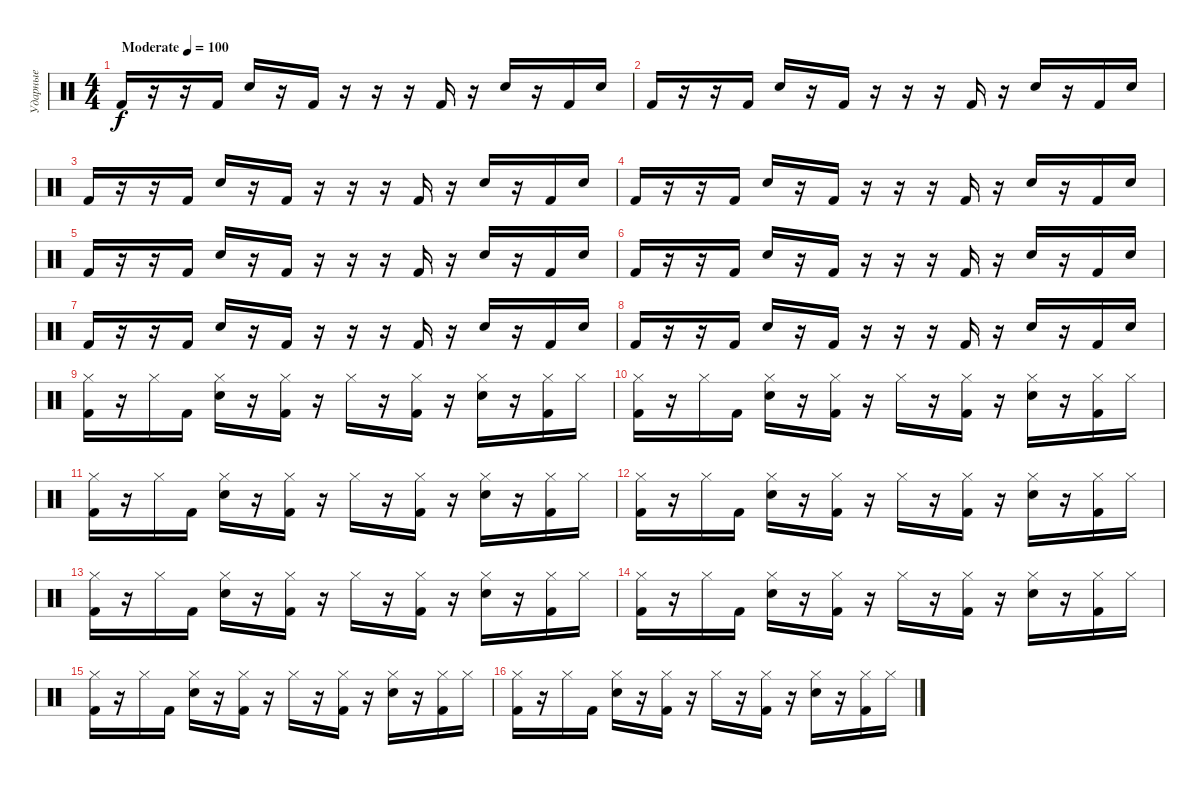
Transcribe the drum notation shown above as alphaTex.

\track ("Ударные" "Ударные") {instrument percussion}
\staff {score}
\articulation defaults
\ts (4 4)
\tempo (100 "Moderate")
\clef neutral
\ks c "Kick (hit) 2".16{dy f}
r.16 r.16 "Kick (hit) 2".16 "Electric Snare (hit)".16 r.16 "Kick (hit) 2".16 r.16 r.16 r.16 "Kick (hit) 2".16 r.16 "Electric Snare (hit)".16 r.16 "Kick (hit) 2".16 "Snare (hit)".16 |
"Kick (hit) 2".16 r.16 r.16 "Kick (hit) 2".16 "Electric Snare (hit)".16 r.16 "Kick (hit) 2".16 r.16 r.16 r.16 "Kick (hit) 2".16 r.16 "Electric Snare (hit)".16 r.16 "Kick (hit) 2".16 "Snare (hit)".16 |
"Kick (hit) 2".16 r.16 r.16 "Kick (hit) 2".16 "Electric Snare (hit)".16 r.16 "Kick (hit) 2".16 r.16 r.16 r.16 "Kick (hit) 2".16 r.16 "Electric Snare (hit)".16 r.16 "Kick (hit) 2".16 "Snare (hit)".16 |
"Kick (hit) 2".16 r.16 r.16 "Kick (hit) 2".16 "Electric Snare (hit)".16 r.16 "Kick (hit) 2".16 r.16 r.16 r.16 "Kick (hit) 2".16 r.16 "Electric Snare (hit)".16 r.16 "Kick (hit) 2".16 "Snare (hit)".16 |
"Kick (hit) 2".16 r.16 r.16 "Kick (hit) 2".16 "Electric Snare (hit)".16 r.16 "Kick (hit) 2".16 r.16 r.16 r.16 "Kick (hit) 2".16 r.16 "Electric Snare (hit)".16 r.16 "Kick (hit) 2".16 "Snare (hit)".16 |
"Kick (hit) 2".16 r.16 r.16 "Kick (hit) 2".16 "Electric Snare (hit)".16 r.16 "Kick (hit) 2".16 r.16 r.16 r.16 "Kick (hit) 2".16 r.16 "Electric Snare (hit)".16 r.16 "Kick (hit) 2".16 "Snare (hit)".16 |
"Kick (hit) 2".16 r.16 r.16 "Kick (hit) 2".16 "Electric Snare (hit)".16 r.16 "Kick (hit) 2".16 r.16 r.16 r.16 "Kick (hit) 2".16 r.16 "Electric Snare (hit)".16 r.16 "Kick (hit) 2".16 "Snare (hit)".16 |
"Kick (hit) 2".16 r.16 r.16 "Kick (hit) 2".16 "Electric Snare (hit)".16 r.16 "Kick (hit) 2".16 r.16 r.16 r.16 "Kick (hit) 2".16 r.16 "Electric Snare (hit)".16 r.16 "Kick (hit) 2".16 "Snare (hit)".16 |
("Kick (hit) 2" "Hi-Hat (closed)").16 r.16 "Hi-Hat (closed)".16 "Kick (hit) 2".16 ("Electric Snare (hit)" "Hi-Hat (closed)").16 r.16 ("Kick (hit) 2" "Hi-Hat (closed)").16 r.16 "Hi-Hat (closed)".16 r.16 ("Kick (hit) 2" "Hi-Hat (closed)").16 r.16 ("Electric Snare (hit)" "Hi-Hat (closed)").16 r.16 ("Kick (hit) 2" "Hi-Hat (closed)").16 "Hi-Hat (closed)".16 |
("Kick (hit) 2" "Hi-Hat (closed)").16 r.16 "Hi-Hat (closed)".16 "Kick (hit) 2".16 ("Electric Snare (hit)" "Hi-Hat (closed)").16 r.16 ("Kick (hit) 2" "Hi-Hat (closed)").16 r.16 "Hi-Hat (closed)".16 r.16 ("Kick (hit) 2" "Hi-Hat (closed)").16 r.16 ("Electric Snare (hit)" "Hi-Hat (closed)").16 r.16 ("Kick (hit) 2" "Hi-Hat (closed)").16 "Hi-Hat (closed)".16 |
("Kick (hit) 2" "Hi-Hat (closed)").16 r.16 "Hi-Hat (closed)".16 "Kick (hit) 2".16 ("Electric Snare (hit)" "Hi-Hat (closed)").16 r.16 ("Kick (hit) 2" "Hi-Hat (closed)").16 r.16 "Hi-Hat (closed)".16 r.16 ("Kick (hit) 2" "Hi-Hat (closed)").16 r.16 ("Electric Snare (hit)" "Hi-Hat (closed)").16 r.16 ("Kick (hit) 2" "Hi-Hat (closed)").16 "Hi-Hat (closed)".16 |
("Kick (hit) 2" "Hi-Hat (closed)").16 r.16 "Hi-Hat (closed)".16 "Kick (hit) 2".16 ("Electric Snare (hit)" "Hi-Hat (closed)").16 r.16 ("Kick (hit) 2" "Hi-Hat (closed)").16 r.16 "Hi-Hat (closed)".16 r.16 ("Kick (hit) 2" "Hi-Hat (closed)").16 r.16 ("Electric Snare (hit)" "Hi-Hat (closed)").16 r.16 ("Kick (hit) 2" "Hi-Hat (closed)").16 "Hi-Hat (closed)".16 |
("Kick (hit) 2" "Hi-Hat (closed)").16 r.16 "Hi-Hat (closed)".16 "Kick (hit) 2".16 ("Electric Snare (hit)" "Hi-Hat (closed)").16 r.16 ("Kick (hit) 2" "Hi-Hat (closed)").16 r.16 "Hi-Hat (closed)".16 r.16 ("Kick (hit) 2" "Hi-Hat (closed)").16 r.16 ("Electric Snare (hit)" "Hi-Hat (closed)").16 r.16 ("Kick (hit) 2" "Hi-Hat (closed)").16 "Hi-Hat (closed)".16 |
("Kick (hit) 2" "Hi-Hat (closed)").16 r.16 "Hi-Hat (closed)".16 "Kick (hit) 2".16 ("Electric Snare (hit)" "Hi-Hat (closed)").16 r.16 ("Kick (hit) 2" "Hi-Hat (closed)").16 r.16 "Hi-Hat (closed)".16 r.16 ("Kick (hit) 2" "Hi-Hat (closed)").16 r.16 ("Electric Snare (hit)" "Hi-Hat (closed)").16 r.16 ("Kick (hit) 2" "Hi-Hat (closed)").16 "Hi-Hat (closed)".16 |
("Kick (hit) 2" "Hi-Hat (closed)").16 r.16 "Hi-Hat (closed)".16 "Kick (hit) 2".16 ("Electric Snare (hit)" "Hi-Hat (closed)").16 r.16 ("Kick (hit) 2" "Hi-Hat (closed)").16 r.16 "Hi-Hat (closed)".16 r.16 ("Kick (hit) 2" "Hi-Hat (closed)").16 r.16 ("Electric Snare (hit)" "Hi-Hat (closed)").16 r.16 ("Kick (hit) 2" "Hi-Hat (closed)").16 "Hi-Hat (closed)".16 |
("Kick (hit) 2" "Hi-Hat (closed)").16 r.16 "Hi-Hat (closed)".16 "Kick (hit) 2".16 ("Electric Snare (hit)" "Hi-Hat (closed)").16 r.16 ("Kick (hit) 2" "Hi-Hat (closed)").16 r.16 "Hi-Hat (closed)".16 r.16 ("Kick (hit) 2" "Hi-Hat (closed)").16 r.16 ("Electric Snare (hit)" "Hi-Hat (closed)").16 r.16 ("Kick (hit) 2" "Hi-Hat (closed)").16 "Hi-Hat (closed)".16
